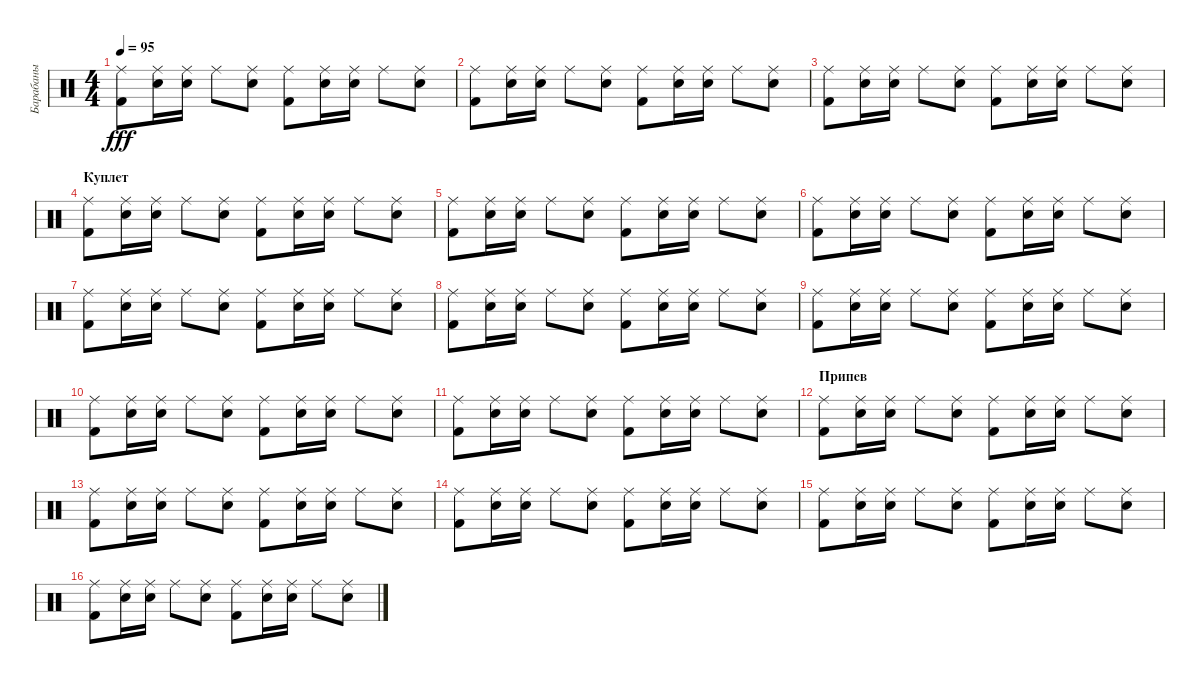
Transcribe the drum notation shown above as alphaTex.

\track ("Барабаны" "Барабаны") {instrument percussion}
\staff {score}
\articulation defaults
\ts (4 4)
\tempo 95
\clef neutral
\ks c
("Kick (hit) 2" "Ride (middle)").8{dy fff} ("Snare (hit) 2" "Ride (middle)").16 ("Snare (hit) 2" "Ride (middle)").16 "Ride (middle)".8 ("Snare (hit) 2" "Ride (middle)").8 ("Kick (hit) 2" "Ride (middle)").8 ("Snare (hit) 2" "Ride (middle)").16 ("Snare (hit) 2" "Ride (middle)").16 "Ride (middle)".8 ("Snare (hit) 2" "Ride (middle)").8 |
("Kick (hit) 2" "Ride (middle)").8 ("Snare (hit) 2" "Ride (middle)").16 ("Snare (hit) 2" "Ride (middle)").16 "Ride (middle)".8 ("Snare (hit) 2" "Ride (middle)").8 ("Kick (hit) 2" "Ride (middle)").8 ("Snare (hit) 2" "Ride (middle)").16 ("Snare (hit) 2" "Ride (middle)").16 "Ride (middle)".8 ("Snare (hit) 2" "Ride (middle)").8 |
("Kick (hit) 2" "Ride (middle)").8 ("Snare (hit) 2" "Ride (middle)").16 ("Snare (hit) 2" "Ride (middle)").16 "Ride (middle)".8 ("Snare (hit) 2" "Ride (middle)").8 ("Kick (hit) 2" "Ride (middle)").8 ("Snare (hit) 2" "Ride (middle)").16 ("Snare (hit) 2" "Ride (middle)").16 "Ride (middle)".8 ("Snare (hit) 2" "Ride (middle)").8 |
\section ("" "Куплет")
("Kick (hit) 2" "Ride (middle)").8 ("Snare (hit) 2" "Ride (middle)").16 ("Snare (hit) 2" "Ride (middle)").16 "Ride (middle)".8 ("Snare (hit) 2" "Ride (middle)").8 ("Kick (hit) 2" "Ride (middle)").8 ("Snare (hit) 2" "Ride (middle)").16 ("Snare (hit) 2" "Ride (middle)").16 "Ride (middle)".8 ("Snare (hit) 2" "Ride (middle)").8 |
("Kick (hit) 2" "Ride (middle)").8 ("Snare (hit) 2" "Ride (middle)").16 ("Snare (hit) 2" "Ride (middle)").16 "Ride (middle)".8 ("Snare (hit) 2" "Ride (middle)").8 ("Kick (hit) 2" "Ride (middle)").8 ("Snare (hit) 2" "Ride (middle)").16 ("Snare (hit) 2" "Ride (middle)").16 "Ride (middle)".8 ("Snare (hit) 2" "Ride (middle)").8 |
("Kick (hit) 2" "Ride (middle)").8 ("Snare (hit) 2" "Ride (middle)").16 ("Snare (hit) 2" "Ride (middle)").16 "Ride (middle)".8 ("Snare (hit) 2" "Ride (middle)").8 ("Kick (hit) 2" "Ride (middle)").8 ("Snare (hit) 2" "Ride (middle)").16 ("Snare (hit) 2" "Ride (middle)").16 "Ride (middle)".8 ("Snare (hit) 2" "Ride (middle)").8 |
("Kick (hit) 2" "Ride (middle)").8 ("Snare (hit) 2" "Ride (middle)").16 ("Snare (hit) 2" "Ride (middle)").16 "Ride (middle)".8 ("Snare (hit) 2" "Ride (middle)").8 ("Kick (hit) 2" "Ride (middle)").8 ("Snare (hit) 2" "Ride (middle)").16 ("Snare (hit) 2" "Ride (middle)").16 "Ride (middle)".8 ("Snare (hit) 2" "Ride (middle)").8 |
("Kick (hit) 2" "Ride (middle)").8 ("Snare (hit) 2" "Ride (middle)").16 ("Snare (hit) 2" "Ride (middle)").16 "Ride (middle)".8 ("Snare (hit) 2" "Ride (middle)").8 ("Kick (hit) 2" "Ride (middle)").8 ("Snare (hit) 2" "Ride (middle)").16 ("Snare (hit) 2" "Ride (middle)").16 "Ride (middle)".8 ("Snare (hit) 2" "Ride (middle)").8 |
("Kick (hit) 2" "Ride (middle)").8 ("Snare (hit) 2" "Ride (middle)").16 ("Snare (hit) 2" "Ride (middle)").16 "Ride (middle)".8 ("Snare (hit) 2" "Ride (middle)").8 ("Kick (hit) 2" "Ride (middle)").8 ("Snare (hit) 2" "Ride (middle)").16 ("Snare (hit) 2" "Ride (middle)").16 "Ride (middle)".8 ("Snare (hit) 2" "Ride (middle)").8 |
("Kick (hit) 2" "Ride (middle)").8 ("Snare (hit) 2" "Ride (middle)").16 ("Snare (hit) 2" "Ride (middle)").16 "Ride (middle)".8 ("Snare (hit) 2" "Ride (middle)").8 ("Kick (hit) 2" "Ride (middle)").8 ("Snare (hit) 2" "Ride (middle)").16 ("Snare (hit) 2" "Ride (middle)").16 "Ride (middle)".8 ("Snare (hit) 2" "Ride (middle)").8 |
("Kick (hit) 2" "Ride (middle)").8 ("Snare (hit) 2" "Ride (middle)").16 ("Snare (hit) 2" "Ride (middle)").16 "Ride (middle)".8 ("Snare (hit) 2" "Ride (middle)").8 ("Kick (hit) 2" "Ride (middle)").8 ("Snare (hit) 2" "Ride (middle)").16 ("Snare (hit) 2" "Ride (middle)").16 "Ride (middle)".8 ("Snare (hit) 2" "Ride (middle)").8 |
\section ("" "Припев")
("Kick (hit) 2" "Ride (middle)").8 ("Snare (hit) 2" "Ride (middle)").16 ("Snare (hit) 2" "Ride (middle)").16 "Ride (middle)".8 ("Snare (hit) 2" "Ride (middle)").8 ("Kick (hit) 2" "Ride (middle)").8 ("Snare (hit) 2" "Ride (middle)").16 ("Snare (hit) 2" "Ride (middle)").16 "Ride (middle)".8 ("Snare (hit) 2" "Ride (middle)").8 |
("Kick (hit) 2" "Ride (middle)").8 ("Snare (hit) 2" "Ride (middle)").16 ("Snare (hit) 2" "Ride (middle)").16 "Ride (middle)".8 ("Snare (hit) 2" "Ride (middle)").8 ("Kick (hit) 2" "Ride (middle)").8 ("Snare (hit) 2" "Ride (middle)").16 ("Snare (hit) 2" "Ride (middle)").16 "Ride (middle)".8 ("Snare (hit) 2" "Ride (middle)").8 |
("Kick (hit) 2" "Ride (middle)").8 ("Snare (hit) 2" "Ride (middle)").16 ("Snare (hit) 2" "Ride (middle)").16 "Ride (middle)".8 ("Snare (hit) 2" "Ride (middle)").8 ("Kick (hit) 2" "Ride (middle)").8 ("Snare (hit) 2" "Ride (middle)").16 ("Snare (hit) 2" "Ride (middle)").16 "Ride (middle)".8 ("Snare (hit) 2" "Ride (middle)").8 |
("Kick (hit) 2" "Ride (middle)").8 ("Snare (hit) 2" "Ride (middle)").16 ("Snare (hit) 2" "Ride (middle)").16 "Ride (middle)".8 ("Snare (hit) 2" "Ride (middle)").8 ("Kick (hit) 2" "Ride (middle)").8 ("Snare (hit) 2" "Ride (middle)").16 ("Snare (hit) 2" "Ride (middle)").16 "Ride (middle)".8 ("Snare (hit) 2" "Ride (middle)").8 |
("Kick (hit) 2" "Ride (middle)").8 ("Snare (hit) 2" "Ride (middle)").16 ("Snare (hit) 2" "Ride (middle)").16 "Ride (middle)".8 ("Snare (hit) 2" "Ride (middle)").8 ("Kick (hit) 2" "Ride (middle)").8 ("Snare (hit) 2" "Ride (middle)").16 ("Snare (hit) 2" "Ride (middle)").16 "Ride (middle)".8 ("Snare (hit) 2" "Ride (middle)").8
